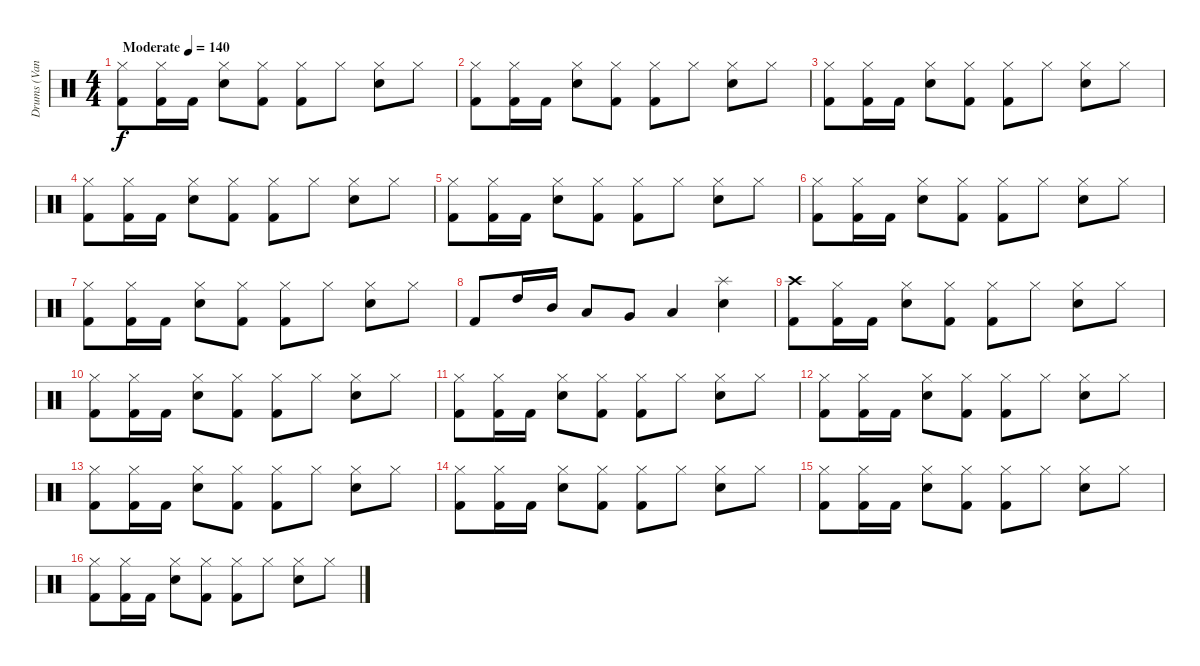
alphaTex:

\track ("Drums (Vandel)" "Drums (Van") {instrument percussion}
\staff {score}
\articulation defaults
\ts (4 4)
\tempo (140 "Moderate")
\clef neutral
\ks c
("Hi-Hat (closed)" "Kick (hit) 2").8{dy f} ("Hi-Hat (closed)" "Kick (hit) 2").16 "Kick (hit) 2".16 ("Hi-Hat (closed)" "Snare (hit) 2").8 ("Hi-Hat (closed)" "Kick (hit) 2").8 ("Hi-Hat (closed)" "Kick (hit) 2").8 "Hi-Hat (closed)".8 ("Hi-Hat (closed)" "Snare (hit) 2").8 "Hi-Hat (closed)".8 |
("Hi-Hat (closed)" "Kick (hit) 2").8 ("Hi-Hat (closed)" "Kick (hit) 2").16 "Kick (hit) 2".16 ("Hi-Hat (closed)" "Snare (hit) 2").8 ("Hi-Hat (closed)" "Kick (hit) 2").8 ("Hi-Hat (closed)" "Kick (hit) 2").8 "Hi-Hat (closed)".8 ("Hi-Hat (closed)" "Snare (hit) 2").8 "Hi-Hat (closed)".8 |
("Hi-Hat (closed)" "Kick (hit) 2").8 ("Hi-Hat (closed)" "Kick (hit) 2").16 "Kick (hit) 2".16 ("Hi-Hat (closed)" "Snare (hit) 2").8 ("Hi-Hat (closed)" "Kick (hit) 2").8 ("Hi-Hat (closed)" "Kick (hit) 2").8 "Hi-Hat (closed)".8 ("Hi-Hat (closed)" "Snare (hit) 2").8 "Hi-Hat (closed)".8 |
("Hi-Hat (closed)" "Kick (hit) 2").8 ("Hi-Hat (closed)" "Kick (hit) 2").16 "Kick (hit) 2".16 ("Hi-Hat (closed)" "Snare (hit) 2").8 ("Hi-Hat (closed)" "Kick (hit) 2").8 ("Hi-Hat (closed)" "Kick (hit) 2").8 "Hi-Hat (closed)".8 ("Hi-Hat (closed)" "Snare (hit) 2").8 "Hi-Hat (closed)".8 |
("Hi-Hat (closed)" "Kick (hit) 2").8 ("Hi-Hat (closed)" "Kick (hit) 2").16 "Kick (hit) 2".16 ("Hi-Hat (closed)" "Snare (hit) 2").8 ("Hi-Hat (closed)" "Kick (hit) 2").8 ("Hi-Hat (closed)" "Kick (hit) 2").8 "Hi-Hat (closed)".8 ("Hi-Hat (closed)" "Snare (hit) 2").8 "Hi-Hat (closed)".8 |
("Hi-Hat (closed)" "Kick (hit) 2").8 ("Hi-Hat (closed)" "Kick (hit) 2").16 "Kick (hit) 2".16 ("Hi-Hat (closed)" "Snare (hit) 2").8 ("Hi-Hat (closed)" "Kick (hit) 2").8 ("Hi-Hat (closed)" "Kick (hit) 2").8 "Hi-Hat (closed)".8 ("Hi-Hat (closed)" "Snare (hit) 2").8 "Hi-Hat (closed)".8 |
("Hi-Hat (closed)" "Kick (hit) 2").8 ("Hi-Hat (closed)" "Kick (hit) 2").16 "Kick (hit) 2".16 ("Hi-Hat (closed)" "Snare (hit) 2").8 ("Hi-Hat (closed)" "Kick (hit) 2").8 ("Hi-Hat (closed)" "Kick (hit) 2").8 "Hi-Hat (closed)".8 ("Hi-Hat (closed)" "Snare (hit) 2").8 "Hi-Hat (closed)".8 |
"Kick (hit) 2".8 "High Tom (hit)".16 "Mid Tom (hit)".16 "Low Tom (hit)".8 "Very Low Tom (hit)".8 "Low Floor Tom (hit)".4 ("Splash (hit)" "Snare (hit) 2").4 |
("Crash high (hit)" "Kick (hit) 2").8 ("Hi-Hat (closed)" "Kick (hit) 2").16 "Kick (hit) 2".16 ("Hi-Hat (closed)" "Snare (hit) 2").8 ("Hi-Hat (closed)" "Kick (hit) 2").8 ("Hi-Hat (closed)" "Kick (hit) 2").8 "Hi-Hat (closed)".8 ("Hi-Hat (closed)" "Snare (hit) 2").8 "Hi-Hat (closed)".8 |
("Hi-Hat (closed)" "Kick (hit) 2").8 ("Hi-Hat (closed)" "Kick (hit) 2").16 "Kick (hit) 2".16 ("Hi-Hat (closed)" "Snare (hit) 2").8 ("Hi-Hat (closed)" "Kick (hit) 2").8 ("Hi-Hat (closed)" "Kick (hit) 2").8 "Hi-Hat (closed)".8 ("Hi-Hat (closed)" "Snare (hit) 2").8 "Hi-Hat (closed)".8 |
("Hi-Hat (closed)" "Kick (hit) 2").8 ("Hi-Hat (closed)" "Kick (hit) 2").16 "Kick (hit) 2".16 ("Hi-Hat (closed)" "Snare (hit) 2").8 ("Hi-Hat (closed)" "Kick (hit) 2").8 ("Hi-Hat (closed)" "Kick (hit) 2").8 "Hi-Hat (closed)".8 ("Hi-Hat (closed)" "Snare (hit) 2").8 "Hi-Hat (closed)".8 |
("Hi-Hat (closed)" "Kick (hit) 2").8 ("Hi-Hat (closed)" "Kick (hit) 2").16 "Kick (hit) 2".16 ("Hi-Hat (closed)" "Snare (hit) 2").8 ("Hi-Hat (closed)" "Kick (hit) 2").8 ("Hi-Hat (closed)" "Kick (hit) 2").8 "Hi-Hat (closed)".8 ("Hi-Hat (closed)" "Snare (hit) 2").8 "Hi-Hat (closed)".8 |
("Hi-Hat (closed)" "Kick (hit) 2").8 ("Hi-Hat (closed)" "Kick (hit) 2").16 "Kick (hit) 2".16 ("Hi-Hat (closed)" "Snare (hit) 2").8 ("Hi-Hat (closed)" "Kick (hit) 2").8 ("Hi-Hat (closed)" "Kick (hit) 2").8 "Hi-Hat (closed)".8 ("Hi-Hat (closed)" "Snare (hit) 2").8 "Hi-Hat (closed)".8 |
("Hi-Hat (closed)" "Kick (hit) 2").8 ("Hi-Hat (closed)" "Kick (hit) 2").16 "Kick (hit) 2".16 ("Hi-Hat (closed)" "Snare (hit) 2").8 ("Hi-Hat (closed)" "Kick (hit) 2").8 ("Hi-Hat (closed)" "Kick (hit) 2").8 "Hi-Hat (closed)".8 ("Hi-Hat (closed)" "Snare (hit) 2").8 "Hi-Hat (closed)".8 |
("Hi-Hat (closed)" "Kick (hit) 2").8 ("Hi-Hat (closed)" "Kick (hit) 2").16 "Kick (hit) 2".16 ("Hi-Hat (closed)" "Snare (hit) 2").8 ("Hi-Hat (closed)" "Kick (hit) 2").8 ("Hi-Hat (closed)" "Kick (hit) 2").8 "Hi-Hat (closed)".8 ("Hi-Hat (closed)" "Snare (hit) 2").8 "Hi-Hat (closed)".8 |
("Hi-Hat (closed)" "Kick (hit) 2").8 ("Hi-Hat (closed)" "Kick (hit) 2").16 "Kick (hit) 2".16 ("Hi-Hat (closed)" "Snare (hit) 2").8 ("Hi-Hat (closed)" "Kick (hit) 2").8 ("Hi-Hat (closed)" "Kick (hit) 2").8 "Hi-Hat (closed)".8 ("Hi-Hat (closed)" "Snare (hit) 2").8 "Hi-Hat (closed)".8
